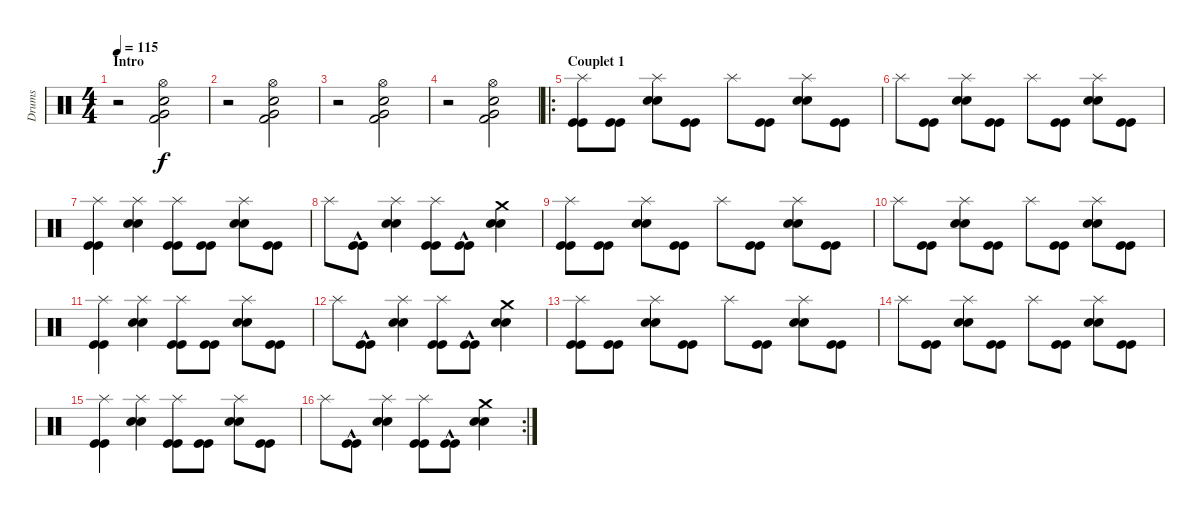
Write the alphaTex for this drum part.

\track ("Drums" "Drums") {instrument percussion}
\staff {score}
\articulation defaults
\ts (4 4)
\section ("" "Intro")
\tempo 115
\clef neutral
\ks c
r.2{dy f} ("Hi-Hat (open)" "Snare (hit) 2" "Very Low Tom (hit)" "Kick (hit) 2").2 |
r.2 ("Hi-Hat (open)" "Snare (hit) 2" "Very Low Tom (hit)" "Kick (hit) 2").2 |
r.2 ("Hi-Hat (open)" "Snare (hit) 2" "Very Low Tom (hit)" "Kick (hit) 2").2 |
r.2 ("Hi-Hat (open)" "Snare (hit) 2" "Very Low Tom (hit)" "Kick (hit) 2").2 |
\ro
\section ("" "Couplet 1")
("Kick (hit)" "Kick (hit)" "Splash (hit)").8 ("Kick (hit)" "Kick (hit)").8 ("Snare (hit) 2" "Snare (hit) 2" "Splash (hit)").8 ("Kick (hit)" "Kick (hit)").8 "Splash (hit)".8 ("Kick (hit)" "Kick (hit)").8 ("Snare (hit) 2" "Snare (hit) 2" "Splash (hit)").8 ("Kick (hit)" "Kick (hit)").8 |
"Splash (hit)".8 ("Kick (hit)" "Kick (hit)").8 ("Snare (hit) 2" "Snare (hit) 2" "Splash (hit)").8 ("Kick (hit)" "Kick (hit)").8 "Splash (hit)".8 ("Kick (hit)" "Kick (hit)").8 ("Snare (hit) 2" "Snare (hit) 2" "Splash (hit)").8 ("Kick (hit)" "Kick (hit)").8 |
("Kick (hit)" "Kick (hit)" "Splash (hit)").4 ("Snare (hit) 2" "Snare (hit) 2" "Splash (hit)").4 ("Kick (hit)" "Kick (hit)" "Splash (hit)").8 ("Kick (hit)" "Kick (hit)").8 ("Snare (hit) 2" "Snare (hit) 2" "Splash (hit)").8 ("Kick (hit)" "Kick (hit)").8 |
"Splash (hit)".8 ("Kick (hit)"{hac} "Kick (hit)"{hac}).8 ("Snare (hit) 2" "Snare (hit) 2" "Splash (hit)").4 ("Kick (hit)" "Kick (hit)" "Splash (hit)").8 ("Kick (hit)"{hac} "Kick (hit)"{hac}).8 ("Snare (hit) 2" "Snare (hit) 2" "Crash medium (hit)").4 |
("Kick (hit)" "Kick (hit)" "Splash (hit)").8 ("Kick (hit)" "Kick (hit)").8 ("Snare (hit) 2" "Snare (hit) 2" "Splash (hit)").8 ("Kick (hit)" "Kick (hit)").8 "Splash (hit)".8 ("Kick (hit)" "Kick (hit)").8 ("Snare (hit) 2" "Snare (hit) 2" "Splash (hit)").8 ("Kick (hit)" "Kick (hit)").8 |
"Splash (hit)".8 ("Kick (hit)" "Kick (hit)").8 ("Snare (hit) 2" "Snare (hit) 2" "Splash (hit)").8 ("Kick (hit)" "Kick (hit)").8 "Splash (hit)".8 ("Kick (hit)" "Kick (hit)").8 ("Snare (hit) 2" "Snare (hit) 2" "Splash (hit)").8 ("Kick (hit)" "Kick (hit)").8 |
("Kick (hit)" "Kick (hit)" "Splash (hit)").4 ("Snare (hit) 2" "Snare (hit) 2" "Splash (hit)").4 ("Kick (hit)" "Kick (hit)" "Splash (hit)").8 ("Kick (hit)" "Kick (hit)").8 ("Snare (hit) 2" "Snare (hit) 2" "Splash (hit)").8 ("Kick (hit)" "Kick (hit)").8 |
"Splash (hit)".8 ("Kick (hit)"{hac} "Kick (hit)"{hac}).8 ("Snare (hit) 2" "Snare (hit) 2" "Splash (hit)").4 ("Kick (hit)" "Kick (hit)" "Splash (hit)").8 ("Kick (hit)"{hac} "Kick (hit)"{hac}).8 ("Snare (hit) 2" "Snare (hit) 2" "Crash medium (hit)").4 |
("Kick (hit)" "Kick (hit)" "Splash (hit)").8 ("Kick (hit)" "Kick (hit)").8 ("Snare (hit) 2" "Snare (hit) 2" "Splash (hit)").8 ("Kick (hit)" "Kick (hit)").8 "Splash (hit)".8 ("Kick (hit)" "Kick (hit)").8 ("Snare (hit) 2" "Snare (hit) 2" "Splash (hit)").8 ("Kick (hit)" "Kick (hit)").8 |
"Splash (hit)".8 ("Kick (hit)" "Kick (hit)").8 ("Snare (hit) 2" "Snare (hit) 2" "Splash (hit)").8 ("Kick (hit)" "Kick (hit)").8 "Splash (hit)".8 ("Kick (hit)" "Kick (hit)").8 ("Snare (hit) 2" "Snare (hit) 2" "Splash (hit)").8 ("Kick (hit)" "Kick (hit)").8 |
("Kick (hit)" "Kick (hit)" "Splash (hit)").4 ("Snare (hit) 2" "Snare (hit) 2" "Splash (hit)").4 ("Kick (hit)" "Kick (hit)" "Splash (hit)").8 ("Kick (hit)" "Kick (hit)").8 ("Snare (hit) 2" "Snare (hit) 2" "Splash (hit)").8 ("Kick (hit)" "Kick (hit)").8 |
\rc 2 "Splash (hit)".8
("Kick (hit)"{hac} "Kick (hit)"{hac}).8 ("Snare (hit) 2" "Snare (hit) 2" "Splash (hit)").4 ("Kick (hit)" "Kick (hit)" "Splash (hit)").8 ("Kick (hit)"{hac} "Kick (hit)"{hac}).8 ("Snare (hit) 2" "Snare (hit) 2" "Crash medium (hit)").4
